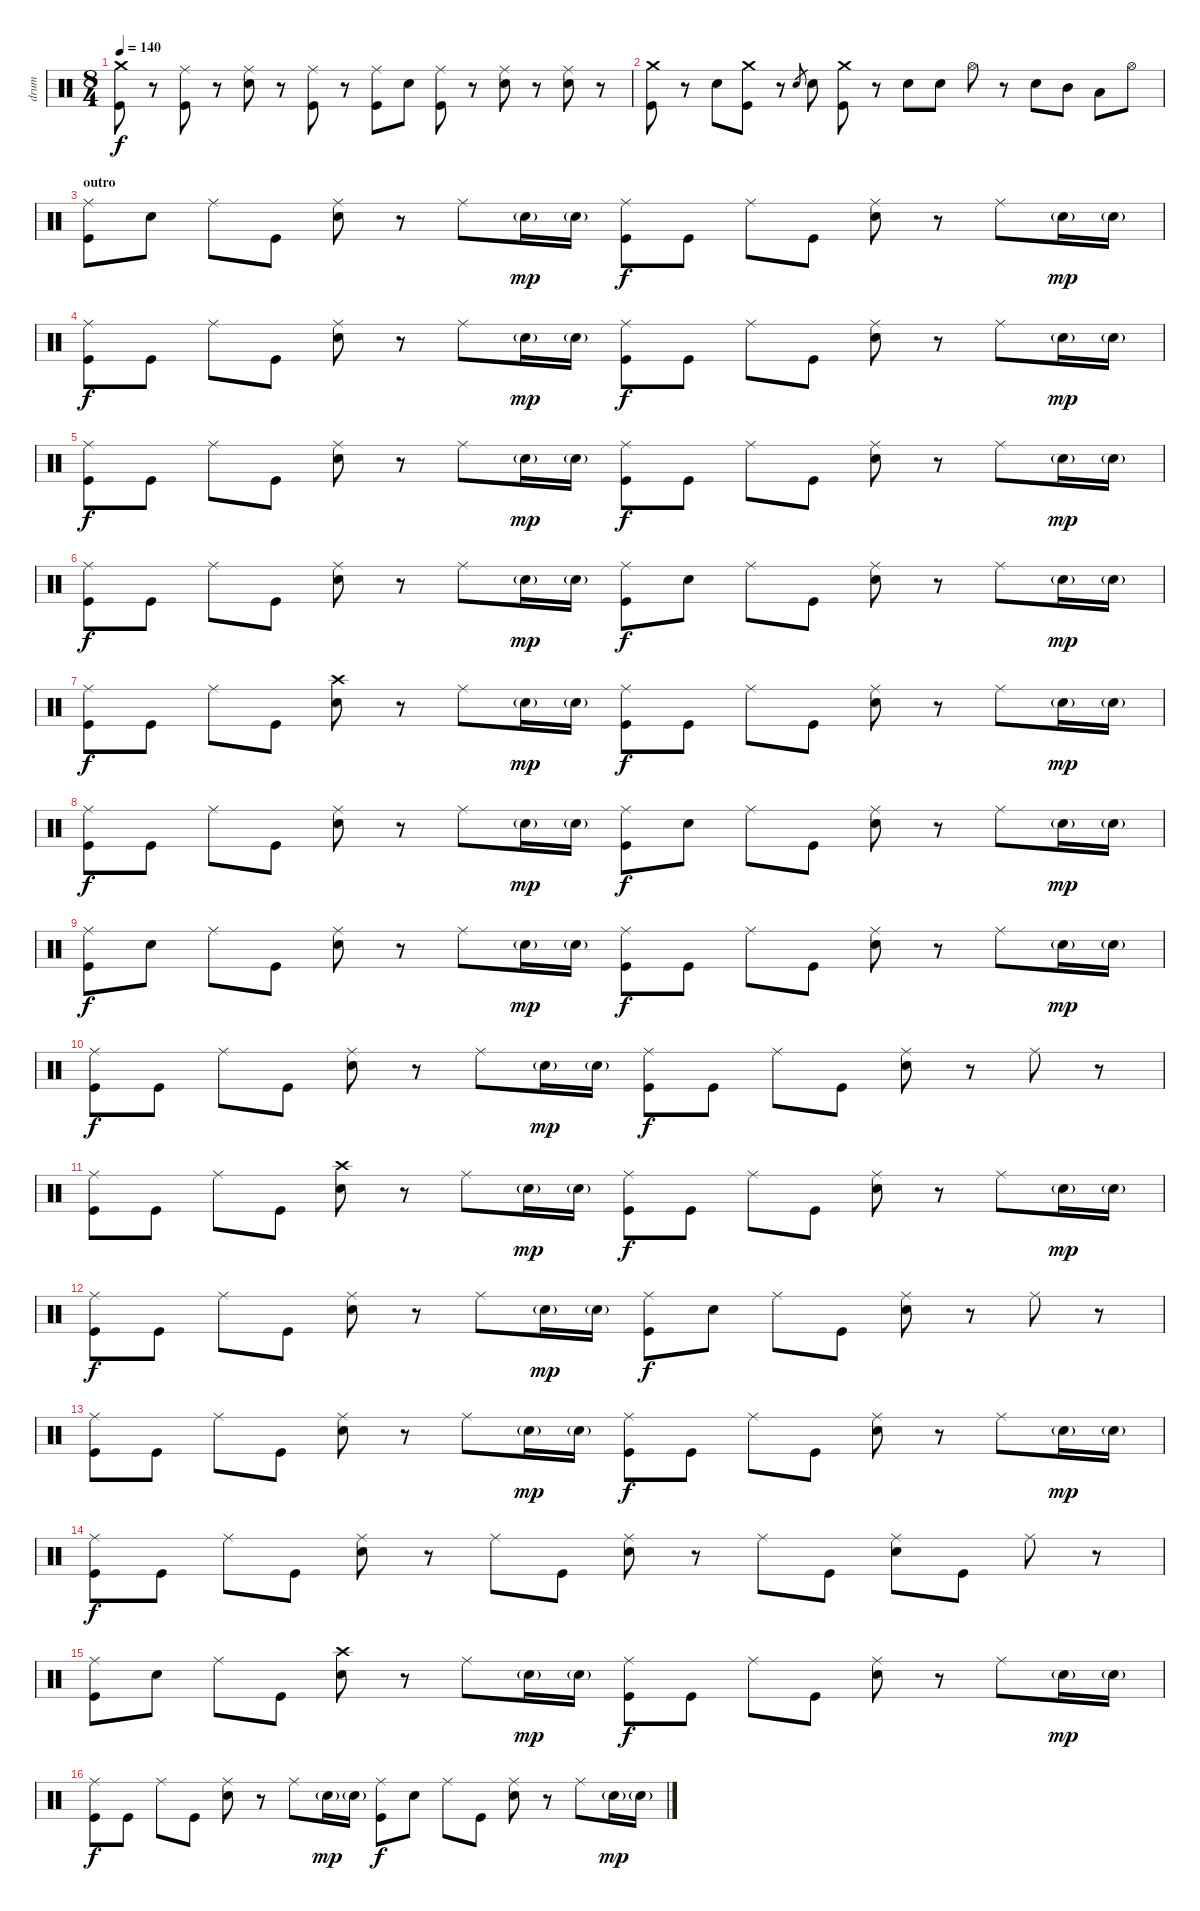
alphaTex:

\track ("drum" "drum") {instrument percussion}
\staff {score}
\articulation defaults
\ts (8 4)
\tempo 140
\clef neutral
\ks c
("Crash medium (hit)" "Kick (hit)").8{dy f} r.8 ("Ride (middle)" "Kick (hit)").8 r.8 ("Ride (middle)" "Electric Snare (hit)").8 r.8 ("Ride (middle)" "Kick (hit)").8 r.8 ("Ride (middle)" "Kick (hit)").8 "Electric Snare (hit)".8 ("Ride (middle)" "Kick (hit)").8 r.8 ("Ride (middle)" "Electric Snare (hit)").8 r.8 ("Ride (middle)" "Electric Snare (hit)").8 r.8 |
("Crash medium (hit)" "Kick (hit)").8 r.8 "Electric Snare (hit)".8 ("Crash medium (hit)" "Kick (hit)").8 r.8 "Electric Snare (hit)".8{gr} "Electric Snare (hit)".8 ("Crash medium (hit)" "Kick (hit)").8 r.8 "Electric Snare (hit)".8 "Electric Snare (hit)".8 "Hi-Hat (open)".8 r.8 "Electric Snare (hit)".8 "Mid Tom (hit)".8 "Low Floor Tom (hit)".8 "Hi-Hat (open)".8 |
\section ("" "outro")
("Ride (middle)" "Kick (hit)").8{volume 16} "Electric Snare (hit)".8 "Ride (middle)".8 "Kick (hit)".8 ("Ride (middle)" "Electric Snare (hit)").8 r.8 "Ride (middle)".8 "Electric Snare (hit)"{g}.16{dy mp volume 11} "Electric Snare (hit)"{g}.16 ("Ride (middle)" "Kick (hit)").8{dy f volume 16} "Kick (hit)".8 "Ride (middle)".8 "Kick (hit)".8 ("Ride (middle)" "Electric Snare (hit)").8 r.8 "Ride (middle)".8 "Electric Snare (hit)"{g}.16{dy mp volume 11} "Electric Snare (hit)"{g}.16 |
("Ride (middle)" "Kick (hit)").8{dy f volume 16} "Kick (hit)".8 "Ride (middle)".8 "Kick (hit)".8 ("Ride (middle)" "Electric Snare (hit)").8 r.8 "Ride (middle)".8 "Electric Snare (hit)"{g}.16{dy mp volume 11} "Electric Snare (hit)"{g}.16 ("Ride (middle)" "Kick (hit)").8{dy f volume 16} "Kick (hit)".8 "Ride (middle)".8 "Kick (hit)".8 ("Ride (middle)" "Electric Snare (hit)").8 r.8 "Ride (middle)".8 "Electric Snare (hit)"{g}.16{dy mp volume 11} "Electric Snare (hit)"{g}.16 |
("Ride (middle)" "Kick (hit)").8{dy f volume 16} "Kick (hit)".8 "Ride (middle)".8 "Kick (hit)".8 ("Ride (middle)" "Electric Snare (hit)").8 r.8 "Ride (middle)".8 "Electric Snare (hit)"{g}.16{dy mp volume 11} "Electric Snare (hit)"{g}.16 ("Ride (middle)" "Kick (hit)").8{dy f volume 16} "Kick (hit)".8 "Ride (middle)".8 "Kick (hit)".8 ("Ride (middle)" "Electric Snare (hit)").8 r.8 "Ride (middle)".8 "Electric Snare (hit)"{g}.16{dy mp volume 11} "Electric Snare (hit)"{g}.16 |
("Ride (middle)" "Kick (hit)").8{dy f volume 16} "Kick (hit)".8 "Ride (middle)".8 "Kick (hit)".8 ("Ride (middle)" "Electric Snare (hit)").8 r.8 "Ride (middle)".8 "Electric Snare (hit)"{g}.16{dy mp volume 11} "Electric Snare (hit)"{g}.16 ("Ride (middle)" "Kick (hit)").8{dy f volume 16} "Electric Snare (hit)".8 "Ride (middle)".8 "Kick (hit)".8 ("Ride (middle)" "Electric Snare (hit)").8 r.8 "Ride (middle)".8 "Electric Snare (hit)"{g}.16{dy mp volume 11} "Electric Snare (hit)"{g}.16 |
("Ride (middle)" "Kick (hit)").8{dy f volume 16} "Kick (hit)".8 "Ride (middle)".8 "Kick (hit)".8 ("Crash high (hit)" "Electric Snare (hit)").8 r.8 "Ride (middle)".8 "Electric Snare (hit)"{g}.16{dy mp volume 11} "Electric Snare (hit)"{g}.16 ("Ride (middle)" "Kick (hit)").8{dy f volume 16} "Kick (hit)".8 "Ride (middle)".8 "Kick (hit)".8 ("Ride (middle)" "Electric Snare (hit)").8 r.8 "Ride (middle)".8 "Electric Snare (hit)"{g}.16{dy mp volume 11} "Electric Snare (hit)"{g}.16 |
("Ride (middle)" "Kick (hit)").8{dy f volume 16} "Kick (hit)".8 "Ride (middle)".8 "Kick (hit)".8 ("Ride (middle)" "Electric Snare (hit)").8 r.8 "Ride (middle)".8 "Electric Snare (hit)"{g}.16{dy mp volume 11} "Electric Snare (hit)"{g}.16 ("Ride (middle)" "Kick (hit)").8{dy f volume 16} "Electric Snare (hit)".8 "Ride (middle)".8 "Kick (hit)".8 ("Ride (middle)" "Electric Snare (hit)").8 r.8 "Ride (middle)".8 "Electric Snare (hit)"{g}.16{dy mp volume 11} "Electric Snare (hit)"{g}.16 |
("Ride (middle)" "Kick (hit)").8{dy f volume 16} "Electric Snare (hit)".8 "Ride (middle)".8 "Kick (hit)".8 ("Ride (middle)" "Electric Snare (hit)").8 r.8 "Ride (middle)".8 "Electric Snare (hit)"{g}.16{dy mp volume 11} "Electric Snare (hit)"{g}.16 ("Ride (middle)" "Kick (hit)").8{dy f volume 16} "Kick (hit)".8 "Ride (middle)".8 "Kick (hit)".8 ("Ride (middle)" "Electric Snare (hit)").8 r.8 "Ride (middle)".8 "Electric Snare (hit)"{g}.16{dy mp volume 11} "Electric Snare (hit)"{g}.16 |
("Ride (middle)" "Kick (hit)").8{dy f volume 16} "Kick (hit)".8 "Ride (middle)".8 "Kick (hit)".8 ("Ride (middle)" "Electric Snare (hit)").8 r.8 "Ride (middle)".8 "Electric Snare (hit)"{g}.16{dy mp volume 11} "Electric Snare (hit)"{g}.16 ("Ride (middle)" "Kick (hit)").8{dy f volume 16} "Kick (hit)".8 "Ride (middle)".8 "Kick (hit)".8 ("Ride (middle)" "Electric Snare (hit)").8 r.8 "Ride (middle)".8 r.8 |
("Ride (middle)" "Kick (hit)").8{volume 16} "Kick (hit)".8 "Ride (middle)".8 "Kick (hit)".8 ("Crash high (hit)" "Electric Snare (hit)").8 r.8 "Ride (middle)".8 "Electric Snare (hit)"{g}.16{dy mp volume 11} "Electric Snare (hit)"{g}.16 ("Ride (middle)" "Kick (hit)").8{dy f volume 16} "Kick (hit)".8 "Ride (middle)".8 "Kick (hit)".8 ("Ride (middle)" "Electric Snare (hit)").8 r.8 "Ride (middle)".8 "Electric Snare (hit)"{g}.16{dy mp volume 11} "Electric Snare (hit)"{g}.16 |
("Ride (middle)" "Kick (hit)").8{dy f volume 16} "Kick (hit)".8 "Ride (middle)".8 "Kick (hit)".8 ("Ride (middle)" "Electric Snare (hit)").8 r.8 "Ride (middle)".8 "Electric Snare (hit)"{g}.16{dy mp volume 11} "Electric Snare (hit)"{g}.16 ("Ride (middle)" "Kick (hit)").8{dy f volume 16} "Electric Snare (hit)".8 "Ride (middle)".8 "Kick (hit)".8 ("Ride (middle)" "Electric Snare (hit)").8 r.8 "Ride (middle)".8 r.8 |
("Ride (middle)" "Kick (hit)").8{volume 16} "Kick (hit)".8 "Ride (middle)".8 "Kick (hit)".8 ("Ride (middle)" "Electric Snare (hit)").8 r.8 "Ride (middle)".8 "Electric Snare (hit)"{g}.16{dy mp volume 11} "Electric Snare (hit)"{g}.16 ("Ride (middle)" "Kick (hit)").8{dy f volume 16} "Kick (hit)".8 "Ride (middle)".8 "Kick (hit)".8 ("Ride (middle)" "Electric Snare (hit)").8 r.8 "Ride (middle)".8 "Electric Snare (hit)"{g}.16{dy mp volume 11} "Electric Snare (hit)"{g}.16 |
("Ride (middle)" "Kick (hit)").8{dy f volume 16} "Kick (hit)".8 "Ride (middle)".8 "Kick (hit)".8 ("Ride (middle)" "Electric Snare (hit)").8 r.8 "Ride (middle)".8 "Kick (hit)".8 ("Ride (middle)" "Electric Snare (hit)").8 r.8 "Ride (middle)".8 "Kick (hit)".8 ("Ride (middle)" "Electric Snare (hit)").8 "Kick (hit)".8 "Ride (middle)".8 r.8 |
("Ride (middle)" "Kick (hit)").8{volume 16} "Electric Snare (hit)".8 "Ride (middle)".8 "Kick (hit)".8 ("Crash high (hit)" "Electric Snare (hit)").8 r.8 "Ride (middle)".8 "Electric Snare (hit)"{g}.16{dy mp volume 11} "Electric Snare (hit)"{g}.16 ("Ride (middle)" "Kick (hit)").8{dy f volume 16} "Kick (hit)".8 "Ride (middle)".8 "Kick (hit)".8 ("Ride (middle)" "Electric Snare (hit)").8 r.8 "Ride (middle)".8 "Electric Snare (hit)"{g}.16{dy mp volume 11} "Electric Snare (hit)"{g}.16 |
("Ride (middle)" "Kick (hit)").8{dy f volume 16} "Kick (hit)".8 "Ride (middle)".8 "Kick (hit)".8 ("Ride (middle)" "Electric Snare (hit)").8 r.8 "Ride (middle)".8 "Electric Snare (hit)"{g}.16{dy mp volume 11} "Electric Snare (hit)"{g}.16 ("Ride (middle)" "Kick (hit)").8{dy f volume 16} "Electric Snare (hit)".8 "Ride (middle)".8 "Kick (hit)".8 ("Ride (middle)" "Electric Snare (hit)").8 r.8 "Ride (middle)".8 "Electric Snare (hit)"{g}.16{dy mp volume 11} "Electric Snare (hit)"{g}.16
